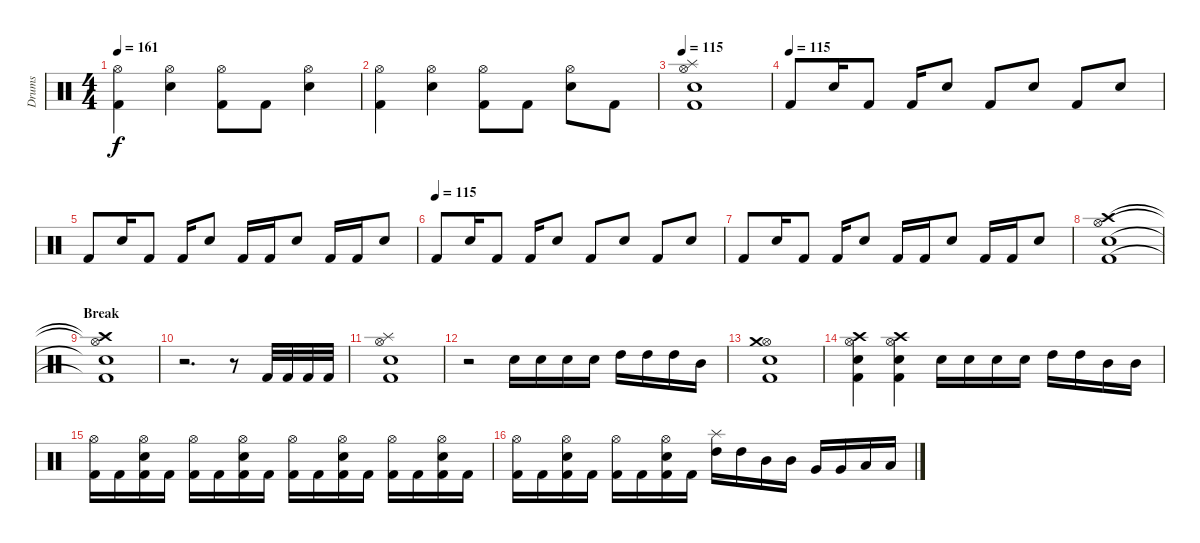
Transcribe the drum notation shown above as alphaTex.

\track ("Drums" "Drums") {instrument percussion}
\staff {score}
\articulation defaults
\ts (4 4)
\tempo 161
\clef neutral
\ks c
("Kick (hit) 2" "Hi-Hat (open)").4{dy f} ("Electric Snare (hit)" "Hi-Hat (open)").4 ("Kick (hit) 2" "Hi-Hat (open)").8 "Kick (hit) 2".8 ("Electric Snare (hit)" "Hi-Hat (open)").4 |
("Kick (hit) 2" "Hi-Hat (open)").4 ("Electric Snare (hit)" "Hi-Hat (open)").4 ("Kick (hit) 2" "Hi-Hat (open)").8 "Kick (hit) 2".8 ("Electric Snare (hit)" "Hi-Hat (open)").8 "Kick (hit) 2".8 |
\tempo 115
("Kick (hit) 2" "Electric Snare (hit)" "Hi-Hat (open)" "Splash (hit)").1 |
\tempo (115)
"Kick (hit) 2".8 "Electric Snare (hit)".16 "Kick (hit) 2".8 "Kick (hit) 2".16 "Electric Snare (hit)".8 "Kick (hit) 2".8 "Electric Snare (hit)".8 "Kick (hit) 2".8 "Electric Snare (hit)".8 |
"Kick (hit) 2".8 "Electric Snare (hit)".16 "Kick (hit) 2".8 "Kick (hit) 2".16 "Electric Snare (hit)".8 "Kick (hit) 2".16 "Kick (hit) 2".16 "Electric Snare (hit)".8 "Kick (hit) 2".16 "Kick (hit) 2".16 "Electric Snare (hit)".8 |
\tempo (115)
"Kick (hit) 2".8 "Electric Snare (hit)".16 "Kick (hit) 2".8 "Kick (hit) 2".16 "Electric Snare (hit)".8 "Kick (hit) 2".8 "Electric Snare (hit)".8 "Kick (hit) 2".8 "Electric Snare (hit)".8 |
"Kick (hit) 2".8 "Electric Snare (hit)".16 "Kick (hit) 2".8 "Kick (hit) 2".16 "Electric Snare (hit)".8 "Kick (hit) 2".16 "Kick (hit) 2".16 "Electric Snare (hit)".8 "Kick (hit) 2".16 "Kick (hit) 2".16 "Electric Snare (hit)".8 |
("Kick (hit) 2" "Electric Snare (hit)" "Hi-Hat (open)" "Crash high (hit)").1 |
\section ("" "Break")
("Kick (hit) 2"{t} "Electric Snare (hit)"{t} "Hi-Hat (open)"{t} "Crash high (hit)"{t}).1 |
r.2{d} r.8 "Kick (hit) 2".32 "Kick (hit) 2".32 "Kick (hit) 2".32 "Kick (hit) 2".32 |
("Kick (hit) 2" "Electric Snare (hit)" "Hi-Hat (open)" "Splash (hit)").1 |
r.2 "Electric Snare (hit)".16 "Electric Snare (hit)".16 "Electric Snare (hit)".16 "Electric Snare (hit)".16 "High Tom (hit)".16 "High Tom (hit)".16 "High Tom (hit)".16 "Mid Tom (hit)".16 |
("Kick (hit) 2" "Electric Snare (hit)" "Hi-Hat (open)" "Crash medium (hit)").1 |
("Kick (hit) 2" "Electric Snare (hit)" "Hi-Hat (open)" "Crash high (hit)").4 ("Kick (hit) 2" "Electric Snare (hit)" "Hi-Hat (open)" "Crash high (hit)").4 "Electric Snare (hit)".16 "Electric Snare (hit)".16 "Electric Snare (hit)".16 "Electric Snare (hit)".16 "High Tom (hit)".16 "High Tom (hit)".16 "Mid Tom (hit)".16 "Mid Tom (hit)".16 |
("Kick (hit) 2" "Hi-Hat (open)").16 "Kick (hit) 2".16 ("Kick (hit) 2" "Electric Snare (hit)" "Hi-Hat (open)").16 "Kick (hit) 2".16 ("Kick (hit) 2" "Hi-Hat (open)").16 "Kick (hit) 2".16 ("Kick (hit) 2" "Electric Snare (hit)" "Hi-Hat (open)").16 "Kick (hit) 2".16 ("Kick (hit) 2" "Hi-Hat (open)").16 "Kick (hit) 2".16 ("Kick (hit) 2" "Electric Snare (hit)" "Hi-Hat (open)").16 "Kick (hit) 2".16 ("Kick (hit) 2" "Hi-Hat (open)").16 "Kick (hit) 2".16 ("Kick (hit) 2" "Electric Snare (hit)" "Hi-Hat (open)").16 "Kick (hit) 2".16 |
("Kick (hit) 2" "Hi-Hat (open)").16 "Kick (hit) 2".16 ("Kick (hit) 2" "Electric Snare (hit)" "Hi-Hat (open)").16 "Kick (hit) 2".16 ("Kick (hit) 2" "Hi-Hat (open)").16 "Kick (hit) 2".16 ("Kick (hit) 2" "Electric Snare (hit)" "Hi-Hat (open)").16 "Kick (hit) 2".16 ("High Tom (hit)" "Splash (hit)").16 "High Tom (hit)".16 "Mid Tom (hit)".16 "Mid Tom (hit)".16 "Very Low Tom (hit)".16 "Very Low Tom (hit)".16 "Low Floor Tom (hit)".16 "Low Floor Tom (hit)".16
